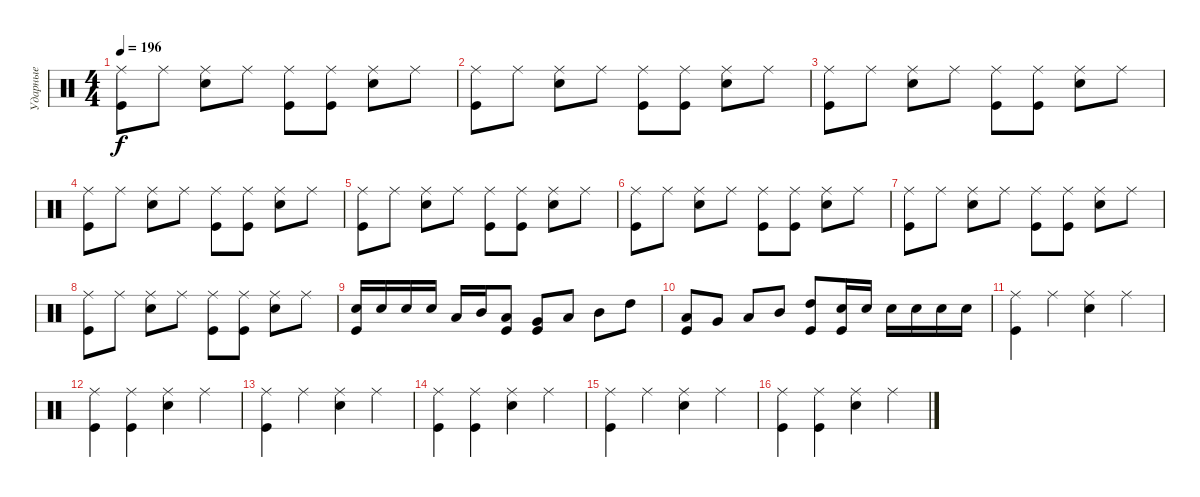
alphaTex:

\track ("Ударные" "Ударные") {instrument percussion}
\staff {score}
\articulation defaults
\ts (4 4)
\tempo 196
\clef neutral
\ks c
("Ride (middle)" "Kick (hit)").8{dy f} "Ride (middle)".8 ("Ride (middle)" "Electric Snare (hit)").8 "Ride (middle)".8 ("Ride (middle)" "Kick (hit)").8 ("Ride (middle)" "Kick (hit)").8 ("Ride (middle)" "Electric Snare (hit)").8 "Ride (middle)".8 |
("Ride (middle)" "Kick (hit)").8 "Ride (middle)".8 ("Ride (middle)" "Electric Snare (hit)").8 "Ride (middle)".8 ("Ride (middle)" "Kick (hit)").8 ("Ride (middle)" "Kick (hit)").8 ("Ride (middle)" "Electric Snare (hit)").8 "Ride (middle)".8 |
("Ride (middle)" "Kick (hit)").8 "Ride (middle)".8 ("Ride (middle)" "Electric Snare (hit)").8 "Ride (middle)".8 ("Ride (middle)" "Kick (hit)").8 ("Ride (middle)" "Kick (hit)").8 ("Ride (middle)" "Electric Snare (hit)").8 "Ride (middle)".8 |
("Ride (middle)" "Kick (hit)").8 "Ride (middle)".8 ("Ride (middle)" "Electric Snare (hit)").8 "Ride (middle)".8 ("Ride (middle)" "Kick (hit)").8 ("Ride (middle)" "Kick (hit)").8 ("Ride (middle)" "Electric Snare (hit)").8 "Ride (middle)".8 |
("Ride (middle)" "Kick (hit)").8 "Ride (middle)".8 ("Ride (middle)" "Electric Snare (hit)").8 "Ride (middle)".8 ("Ride (middle)" "Kick (hit)").8 ("Ride (middle)" "Kick (hit)").8 ("Ride (middle)" "Electric Snare (hit)").8 "Ride (middle)".8 |
("Ride (middle)" "Kick (hit)").8 "Ride (middle)".8 ("Ride (middle)" "Electric Snare (hit)").8 "Ride (middle)".8 ("Ride (middle)" "Kick (hit)").8 ("Ride (middle)" "Kick (hit)").8 ("Ride (middle)" "Electric Snare (hit)").8 "Ride (middle)".8 |
("Ride (middle)" "Kick (hit)").8 "Ride (middle)".8 ("Ride (middle)" "Electric Snare (hit)").8 "Ride (middle)".8 ("Ride (middle)" "Kick (hit)").8 ("Ride (middle)" "Kick (hit)").8 ("Ride (middle)" "Electric Snare (hit)").8 "Ride (middle)".8 |
("Ride (middle)" "Kick (hit)").8 "Ride (middle)".8 ("Ride (middle)" "Electric Snare (hit)").8 "Ride (middle)".8 ("Ride (middle)" "Kick (hit)").8 ("Ride (middle)" "Kick (hit)").8 ("Ride (middle)" "Electric Snare (hit)").8 "Ride (middle)".8 |
("Electric Snare (hit)" "Kick (hit)").16 "Electric Snare (hit)".16 "Electric Snare (hit)".16 "Electric Snare (hit)".16 "Low Tom (hit)".16 "Mid Tom (hit)".16 ("Low Floor Tom (hit)" "Kick (hit)").8 ("Very Low Tom (hit)" "Kick (hit)").8 "Low Tom (hit)".8 "Mid Tom (hit)".8 "High Tom (hit)".8 |
("Low Floor Tom (hit)" "Kick (hit)").8 "Very Low Tom (hit)".8 "Low Tom (hit)".8 "Mid Tom (hit)".8 ("High Tom (hit)" "Kick (hit)").8 ("Electric Snare (hit)" "Kick (hit)").16 "Electric Snare (hit)".16 "Electric Snare (hit)".16 "Electric Snare (hit)".16 "Electric Snare (hit)".16 "Electric Snare (hit)".16 |
("Ride (middle)" "Kick (hit)").4 "Ride (middle)".4 ("Ride (middle)" "Electric Snare (hit)").4 "Ride (middle)".4 |
("Ride (middle)" "Kick (hit)").4 ("Ride (middle)" "Kick (hit)").4 ("Ride (middle)" "Electric Snare (hit)").4 "Ride (middle)".4 |
("Ride (middle)" "Kick (hit)").4 "Ride (middle)".4 ("Ride (middle)" "Electric Snare (hit)").4 "Ride (middle)".4 |
("Ride (middle)" "Kick (hit)").4 ("Ride (middle)" "Kick (hit)").4 ("Ride (middle)" "Electric Snare (hit)").4 "Ride (middle)".4 |
("Ride (middle)" "Kick (hit)").4 "Ride (middle)".4 ("Ride (middle)" "Electric Snare (hit)").4 "Ride (middle)".4 |
("Ride (middle)" "Kick (hit)").4 ("Ride (middle)" "Kick (hit)").4 ("Ride (middle)" "Electric Snare (hit)").4 "Ride (middle)".4
